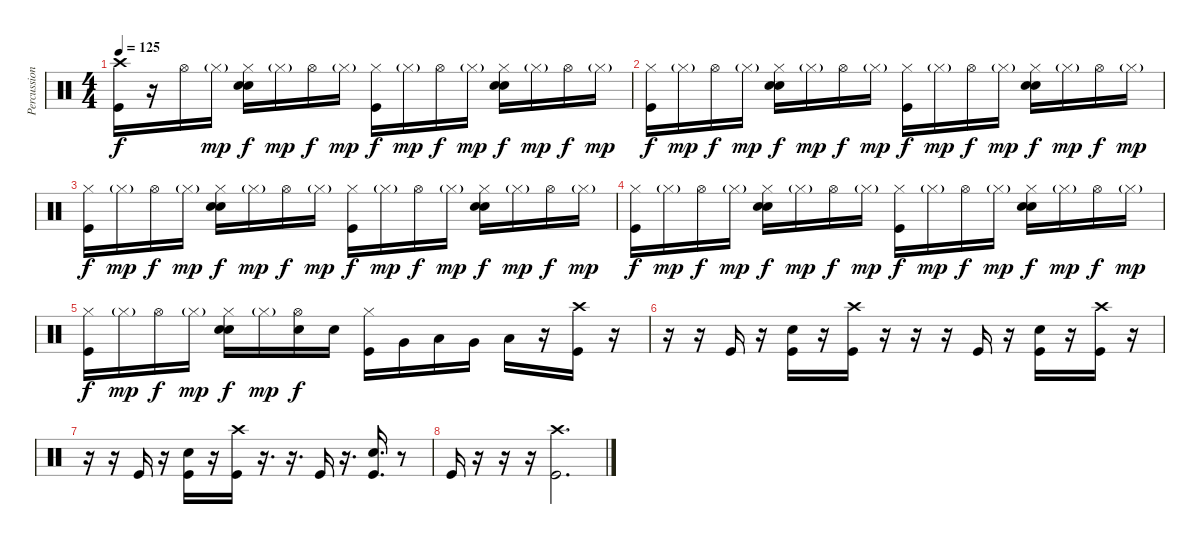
\track ("Percussion" "Percussion") {instrument percussion}
\staff {score}
\articulation defaults
\ts (4 4)
\tempo 125
\clef neutral
\ks c
("Crash high (hit)" "Kick (hit)").16{dy f} r.16 "Hi-Hat (open)".16 "Hi-Hat (closed)"{g}.16{dy mp} ("Hi-Hat (closed)" "Hand Clap (hit)" "Snare (hit) 2").16{dy f} "Hi-Hat (closed)"{g}.16{dy mp} "Hi-Hat (open)".16{dy f} "Hi-Hat (closed)"{g}.16{dy mp} ("Hi-Hat (closed)" "Kick (hit)").16{dy f} "Hi-Hat (closed)"{g}.16{dy mp} "Hi-Hat (open)".16{dy f} "Hi-Hat (closed)"{g}.16{dy mp} ("Hi-Hat (closed)" "Hand Clap (hit)" "Snare (hit) 2").16{dy f} "Hi-Hat (closed)"{g}.16{dy mp} "Hi-Hat (open)".16{dy f} "Hi-Hat (closed)"{g}.16{dy mp} |
("Hi-Hat (closed)" "Kick (hit)").16{dy f} "Hi-Hat (closed)"{g}.16{dy mp} "Hi-Hat (open)".16{dy f} "Hi-Hat (closed)"{g}.16{dy mp} ("Hi-Hat (closed)" "Hand Clap (hit)" "Snare (hit) 2").16{dy f} "Hi-Hat (closed)"{g}.16{dy mp} "Hi-Hat (open)".16{dy f} "Hi-Hat (closed)"{g}.16{dy mp} ("Hi-Hat (closed)" "Kick (hit)").16{dy f} "Hi-Hat (closed)"{g}.16{dy mp} "Hi-Hat (open)".16{dy f} "Hi-Hat (closed)"{g}.16{dy mp} ("Hi-Hat (closed)" "Hand Clap (hit)" "Snare (hit) 2").16{dy f} "Hi-Hat (closed)"{g}.16{dy mp} "Hi-Hat (open)".16{dy f} "Hi-Hat (closed)"{g}.16{dy mp} |
("Hi-Hat (closed)" "Kick (hit)").16{dy f} "Hi-Hat (closed)"{g}.16{dy mp} "Hi-Hat (open)".16{dy f} "Hi-Hat (closed)"{g}.16{dy mp} ("Hi-Hat (closed)" "Hand Clap (hit)" "Snare (hit) 2").16{dy f} "Hi-Hat (closed)"{g}.16{dy mp} "Hi-Hat (open)".16{dy f} "Hi-Hat (closed)"{g}.16{dy mp} ("Hi-Hat (closed)" "Kick (hit)").16{dy f} "Hi-Hat (closed)"{g}.16{dy mp} "Hi-Hat (open)".16{dy f} "Hi-Hat (closed)"{g}.16{dy mp} ("Hi-Hat (closed)" "Hand Clap (hit)" "Snare (hit) 2").16{dy f} "Hi-Hat (closed)"{g}.16{dy mp} "Hi-Hat (open)".16{dy f} "Hi-Hat (closed)"{g}.16{dy mp} |
("Hi-Hat (closed)" "Kick (hit)").16{dy f} "Hi-Hat (closed)"{g}.16{dy mp} "Hi-Hat (open)".16{dy f} "Hi-Hat (closed)"{g}.16{dy mp} ("Hi-Hat (closed)" "Hand Clap (hit)" "Snare (hit) 2").16{dy f} "Hi-Hat (closed)"{g}.16{dy mp} "Hi-Hat (open)".16{dy f} "Hi-Hat (closed)"{g}.16{dy mp} ("Hi-Hat (closed)" "Kick (hit)").16{dy f} "Hi-Hat (closed)"{g}.16{dy mp} "Hi-Hat (open)".16{dy f} "Hi-Hat (closed)"{g}.16{dy mp} ("Hi-Hat (closed)" "Hand Clap (hit)" "Snare (hit) 2").16{dy f} "Hi-Hat (closed)"{g}.16{dy mp} "Hi-Hat (open)".16{dy f} "Hi-Hat (closed)"{g}.16{dy mp} |
("Hi-Hat (closed)" "Kick (hit)").16{dy f} "Hi-Hat (closed)"{g}.16{dy mp} "Hi-Hat (open)".16{dy f} "Hi-Hat (closed)"{g}.16{dy mp} ("Hi-Hat (closed)" "Hand Clap (hit)" "Snare (hit) 2").16{dy f} "Hi-Hat (closed)"{g}.16{dy mp} ("Hi-Hat (open)" "Snare (hit) 2").16{dy f} "Snare (hit) 2".16 ("Hi-Hat (closed)" "Kick (hit)").16 "Very Low Tom (hit)".16 "Low Tom (hit)".16 "Very Low Tom (hit)".16 "Low Tom (hit)".16 r.16 ("Crash high (hit)" "Kick (hit)").16 r.16 |
r.16 r.16 "Kick (hit)".16 r.16 ("Snare (hit) 2" "Kick (hit)").16 r.16 ("Crash high (hit)" "Kick (hit)").16 r.16 r.16 r.16 "Kick (hit)".16 r.16 ("Snare (hit) 2" "Kick (hit)").16 r.16 ("Crash high (hit)" "Kick (hit)").16 r.16 |
r.16 r.16 "Kick (hit)".16 r.16 ("Snare (hit) 2" "Kick (hit)").16 r.16 ("Crash high (hit)" "Kick (hit)").16 r.16{d} r.16{d} "Kick (hit)".16 r.16{d} ("Snare (hit) 2" "Kick (hit)").16{d} r.8 |
"Kick (hit)".16 r.16 r.16 r.16 ("Crash high (hit)" "Kick (hit)").2{d}
